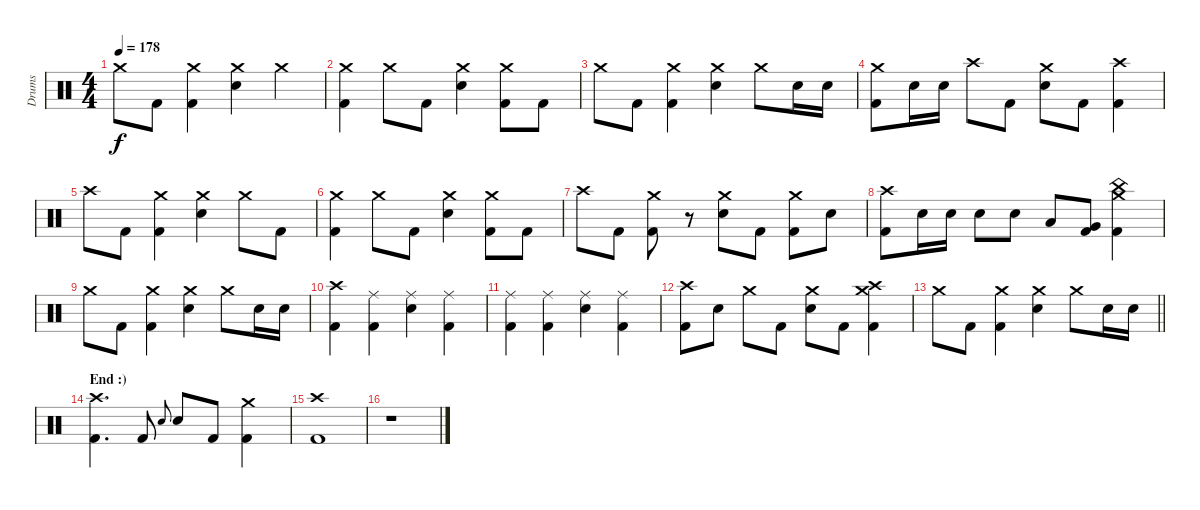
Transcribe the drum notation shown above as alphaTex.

\track ("Drums" "Drums") {instrument percussion}
\staff {score}
\articulation defaults
\ts (4 4)
\tempo 178
\clef neutral
\ks c "Crash medium (hit)".8{dy f} "Kick (hit) 2".8
("Crash medium (hit)" "Kick (hit) 2").4 ("Crash medium (hit)" "Electric Snare (hit)").4 "Crash medium (hit)".4 |
("Crash medium (hit)" "Kick (hit) 2").4 "Crash medium (hit)".8 "Kick (hit) 2".8 ("Crash medium (hit)" "Electric Snare (hit)").4 ("Crash medium (hit)" "Kick (hit) 2").8 "Kick (hit) 2".8 |
"Crash medium (hit)".8 "Kick (hit) 2".8 ("Crash medium (hit)" "Kick (hit) 2").4 ("Crash medium (hit)" "Electric Snare (hit)").4 "Crash medium (hit)".8 "Electric Snare (hit)".16 "Electric Snare (hit)".16 |
("Crash medium (hit)" "Kick (hit) 2").8 "Electric Snare (hit)".16 "Electric Snare (hit)".16 "Crash high (hit)".8 "Kick (hit) 2".8 ("Crash medium (hit)" "Electric Snare (hit)").8 "Kick (hit) 2".8 ("Crash high (hit)" "Kick (hit) 2").4 |
"Crash high (hit)".8 "Kick (hit) 2".8 ("Crash medium (hit)" "Kick (hit) 2").4 ("Crash medium (hit)" "Electric Snare (hit)").4 "Crash medium (hit)".8 "Kick (hit) 2".8 |
("Crash medium (hit)" "Kick (hit) 2").4 "Crash medium (hit)".8 "Kick (hit) 2".8 ("Crash medium (hit)" "Electric Snare (hit)").4 ("Crash medium (hit)" "Kick (hit) 2").8 "Kick (hit) 2".8 |
"Crash high (hit)".8 "Kick (hit) 2".8 ("Crash medium (hit)" "Kick (hit) 2").8 r.8 ("Crash medium (hit)" "Electric Snare (hit)").8 "Kick (hit) 2".8 ("Crash medium (hit)" "Kick (hit) 2").8 "Electric Snare (hit)".8 |
("Crash high (hit)" "Kick (hit) 2").8 "Electric Snare (hit)".16 "Electric Snare (hit)".16 "Electric Snare (hit)".8 "Electric Snare (hit)".8 "Low Tom (hit)".8 ("Very Low Tom (hit)" "Kick (hit) 2").8 ("China (hit)" "Crash medium (hit)" "Kick (hit) 2").4 |
"Crash medium (hit)".8 "Kick (hit) 2".8 ("Crash medium (hit)" "Kick (hit) 2").4 ("Crash medium (hit)" "Electric Snare (hit)").4 "Crash medium (hit)".8 "Electric Snare (hit)".16 "Electric Snare (hit)".16 |
("Crash high (hit)" "Kick (hit) 2").4 ("Ride (middle)" "Kick (hit) 2").4 ("Ride (middle)" "Electric Snare (hit)").4 ("Ride (middle)" "Kick (hit) 2").4 |
("Ride (middle)" "Kick (hit) 2").4 ("Ride (middle)" "Kick (hit) 2").4 ("Ride (middle)" "Electric Snare (hit)").4 ("Ride (middle)" "Kick (hit) 2").4 |
("Crash high (hit)" "Kick (hit) 2").8 "Electric Snare (hit)".8 "Crash medium (hit)".8 "Kick (hit) 2".8 ("Crash medium (hit)" "Electric Snare (hit)").8 "Kick (hit) 2".8 ("Crash high (hit)" "Crash medium (hit)" "Kick (hit) 2").4 |
\barLineRight lightlight "Crash medium (hit)".8 "Kick (hit) 2".8
("Crash medium (hit)" "Kick (hit) 2").4 ("Crash medium (hit)" "Electric Snare (hit)").4 "Crash medium (hit)".8 "Electric Snare (hit)".16 "Electric Snare (hit)".16 |
\section ("" "End :)")
("Crash high (hit)" "Kick (hit) 2").4{d} "Kick (hit) 2".8 "Electric Snare (hit)".8{gr onbeat} "Electric Snare (hit)".8 "Kick (hit) 2".8 ("Crash medium (hit)" "Kick (hit) 2").4 |
("Crash high (hit)" "Kick (hit) 2").1 |
r.1
